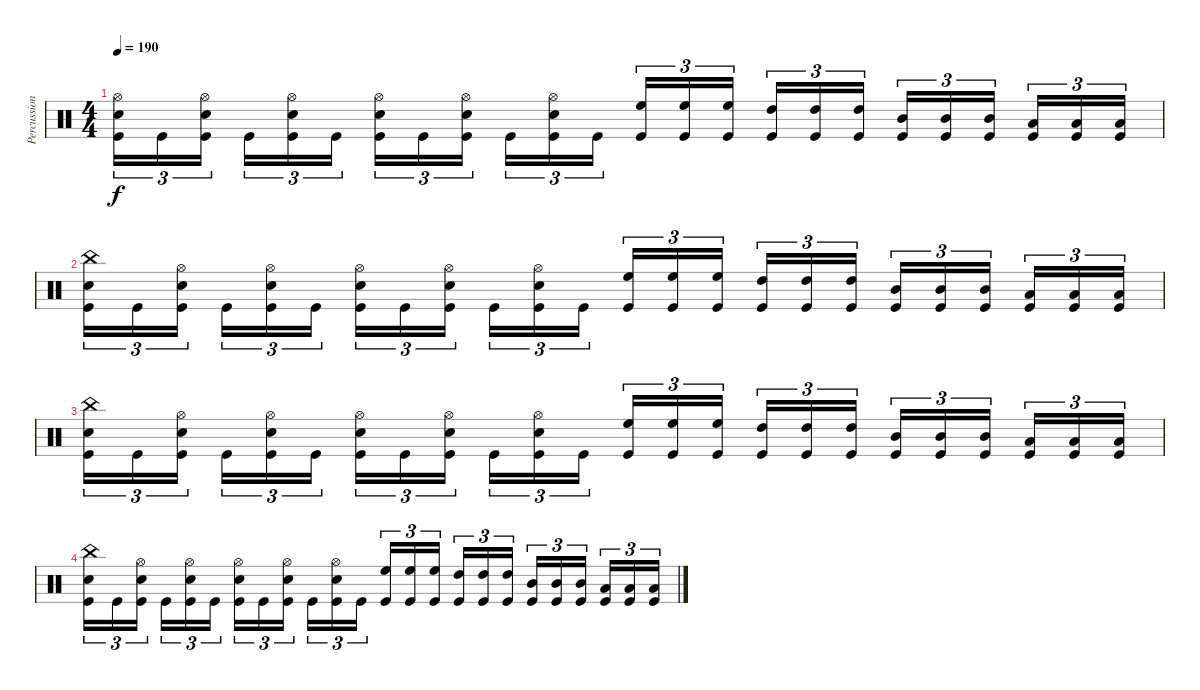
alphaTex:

\track ("Percussion" "Percussion") {instrument percussion}
\staff {score}
\articulation defaults
\ts (4 4)
\tempo 190
\clef neutral
\ks c
("Hi-Hat (open)" "Electric Snare (hit)" "Kick (hit)").16{tu (3 2) dy f} "Kick (hit)".16{tu (3 2)} ("Hi-Hat (open)" "Electric Snare (hit)" "Kick (hit)").16{tu (3 2)} "Kick (hit)".16{tu (3 2)} ("Hi-Hat (open)" "Electric Snare (hit)" "Kick (hit)").16{tu (3 2)} "Kick (hit)".16{tu (3 2)} ("Hi-Hat (open)" "Electric Snare (hit)" "Kick (hit)").16{tu (3 2)} "Kick (hit)".16{tu (3 2)} ("Hi-Hat (open)" "Electric Snare (hit)" "Kick (hit)").16{tu (3 2)} "Kick (hit)".16{tu (3 2)} ("Hi-Hat (open)" "Electric Snare (hit)" "Kick (hit)").16{tu (3 2)} "Kick (hit)".16{tu (3 2)} ("High Floor Tom (hit)" "Kick (hit)").16{tu (3 2)} ("High Floor Tom (hit)" "Kick (hit)").16{tu (3 2)} ("High Floor Tom (hit)" "Kick (hit)").16{tu (3 2)} ("High Tom (hit)" "Kick (hit)").16{tu (3 2)} ("High Tom (hit)" "Kick (hit)").16{tu (3 2)} ("High Tom (hit)" "Kick (hit)").16{tu (3 2)} ("Mid Tom (hit)" "Kick (hit)").16{tu (3 2)} ("Mid Tom (hit)" "Kick (hit)").16{tu (3 2)} ("Mid Tom (hit)" "Kick (hit)").16{tu (3 2)} ("Low Tom (hit)" "Kick (hit)").16{tu (3 2)} ("Low Tom (hit)" "Kick (hit)").16{tu (3 2)} ("Low Tom (hit)" "Kick (hit)").16{tu (3 2)} |
("China (hit)" "Electric Snare (hit)" "Kick (hit)").16{tu (3 2)} "Kick (hit)".16{tu (3 2)} ("Hi-Hat (open)" "Electric Snare (hit)" "Kick (hit)").16{tu (3 2)} "Kick (hit)".16{tu (3 2)} ("Hi-Hat (open)" "Electric Snare (hit)" "Kick (hit)").16{tu (3 2)} "Kick (hit)".16{tu (3 2)} ("Hi-Hat (open)" "Electric Snare (hit)" "Kick (hit)").16{tu (3 2)} "Kick (hit)".16{tu (3 2)} ("Hi-Hat (open)" "Electric Snare (hit)" "Kick (hit)").16{tu (3 2)} "Kick (hit)".16{tu (3 2)} ("Hi-Hat (open)" "Electric Snare (hit)" "Kick (hit)").16{tu (3 2)} "Kick (hit)".16{tu (3 2)} ("High Floor Tom (hit)" "Kick (hit)").16{tu (3 2)} ("High Floor Tom (hit)" "Kick (hit)").16{tu (3 2)} ("High Floor Tom (hit)" "Kick (hit)").16{tu (3 2)} ("High Tom (hit)" "Kick (hit)").16{tu (3 2)} ("High Tom (hit)" "Kick (hit)").16{tu (3 2)} ("High Tom (hit)" "Kick (hit)").16{tu (3 2)} ("Mid Tom (hit)" "Kick (hit)").16{tu (3 2)} ("Mid Tom (hit)" "Kick (hit)").16{tu (3 2)} ("Mid Tom (hit)" "Kick (hit)").16{tu (3 2)} ("Low Tom (hit)" "Kick (hit)").16{tu (3 2)} ("Low Tom (hit)" "Kick (hit)").16{tu (3 2)} ("Low Tom (hit)" "Kick (hit)").16{tu (3 2)} |
("China (hit)" "Electric Snare (hit)" "Kick (hit)").16{tu (3 2)} "Kick (hit)".16{tu (3 2)} ("Hi-Hat (open)" "Electric Snare (hit)" "Kick (hit)").16{tu (3 2)} "Kick (hit)".16{tu (3 2)} ("Hi-Hat (open)" "Electric Snare (hit)" "Kick (hit)").16{tu (3 2)} "Kick (hit)".16{tu (3 2)} ("Hi-Hat (open)" "Electric Snare (hit)" "Kick (hit)").16{tu (3 2)} "Kick (hit)".16{tu (3 2)} ("Hi-Hat (open)" "Electric Snare (hit)" "Kick (hit)").16{tu (3 2)} "Kick (hit)".16{tu (3 2)} ("Hi-Hat (open)" "Electric Snare (hit)" "Kick (hit)").16{tu (3 2)} "Kick (hit)".16{tu (3 2)} ("High Floor Tom (hit)" "Kick (hit)").16{tu (3 2)} ("High Floor Tom (hit)" "Kick (hit)").16{tu (3 2)} ("High Floor Tom (hit)" "Kick (hit)").16{tu (3 2)} ("High Tom (hit)" "Kick (hit)").16{tu (3 2)} ("High Tom (hit)" "Kick (hit)").16{tu (3 2)} ("High Tom (hit)" "Kick (hit)").16{tu (3 2)} ("Mid Tom (hit)" "Kick (hit)").16{tu (3 2)} ("Mid Tom (hit)" "Kick (hit)").16{tu (3 2)} ("Mid Tom (hit)" "Kick (hit)").16{tu (3 2)} ("Low Tom (hit)" "Kick (hit)").16{tu (3 2)} ("Low Tom (hit)" "Kick (hit)").16{tu (3 2)} ("Low Tom (hit)" "Kick (hit)").16{tu (3 2)} |
("China (hit)" "Electric Snare (hit)" "Kick (hit)").16{tu (3 2)} "Kick (hit)".16{tu (3 2)} ("Hi-Hat (open)" "Electric Snare (hit)" "Kick (hit)").16{tu (3 2)} "Kick (hit)".16{tu (3 2)} ("Hi-Hat (open)" "Electric Snare (hit)" "Kick (hit)").16{tu (3 2)} "Kick (hit)".16{tu (3 2)} ("Hi-Hat (open)" "Electric Snare (hit)" "Kick (hit)").16{tu (3 2)} "Kick (hit)".16{tu (3 2)} ("Hi-Hat (open)" "Electric Snare (hit)" "Kick (hit)").16{tu (3 2)} "Kick (hit)".16{tu (3 2)} ("Hi-Hat (open)" "Electric Snare (hit)" "Kick (hit)").16{tu (3 2)} "Kick (hit)".16{tu (3 2)} ("High Floor Tom (hit)" "Kick (hit)").16{tu (3 2)} ("High Floor Tom (hit)" "Kick (hit)").16{tu (3 2)} ("High Floor Tom (hit)" "Kick (hit)").16{tu (3 2)} ("High Tom (hit)" "Kick (hit)").16{tu (3 2)} ("High Tom (hit)" "Kick (hit)").16{tu (3 2)} ("High Tom (hit)" "Kick (hit)").16{tu (3 2)} ("Mid Tom (hit)" "Kick (hit)").16{tu (3 2)} ("Mid Tom (hit)" "Kick (hit)").16{tu (3 2)} ("Mid Tom (hit)" "Kick (hit)").16{tu (3 2)} ("Low Tom (hit)" "Kick (hit)").16{tu (3 2)} ("Low Tom (hit)" "Kick (hit)").16{tu (3 2)} ("Low Tom (hit)" "Kick (hit)").16{tu (3 2)}
